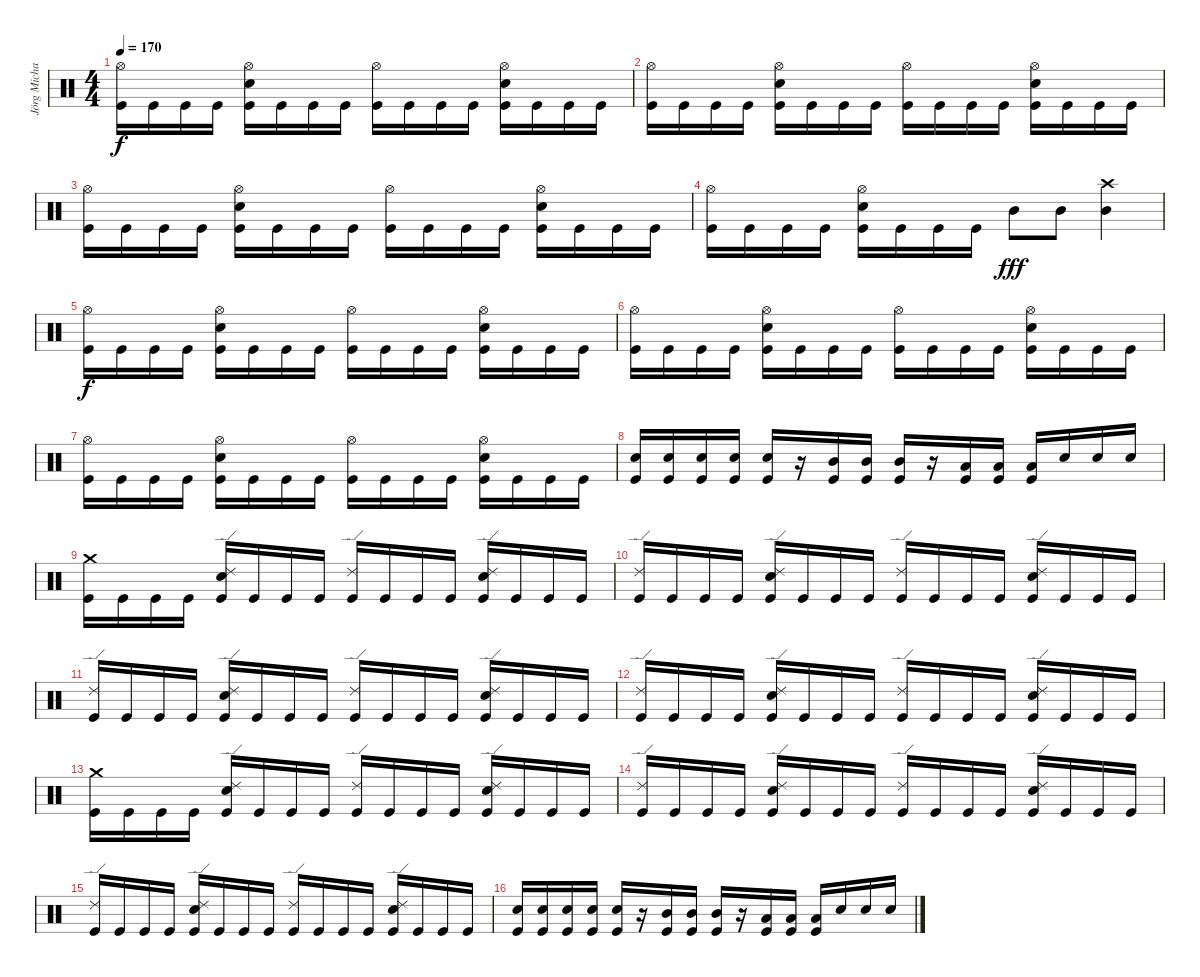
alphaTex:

\track ("Jörg Michael" "Jörg Micha") {instrument percussion}
\staff {score}
\articulation defaults
\ts (4 4)
\tempo 170
\clef neutral
\ks c
("Hi-Hat (open)" "Kick (hit)").16{dy f} "Kick (hit)".16 "Kick (hit)".16 "Kick (hit)".16 ("Hi-Hat (open)" "Electric Snare (hit)" "Kick (hit)").16 "Kick (hit)".16 "Kick (hit)".16 "Kick (hit)".16 ("Hi-Hat (open)" "Kick (hit)").16 "Kick (hit)".16 "Kick (hit)".16 "Kick (hit)".16 ("Hi-Hat (open)" "Electric Snare (hit)" "Kick (hit)").16 "Kick (hit)".16 "Kick (hit)".16 "Kick (hit)".16 |
("Hi-Hat (open)" "Kick (hit)").16 "Kick (hit)".16 "Kick (hit)".16 "Kick (hit)".16 ("Hi-Hat (open)" "Electric Snare (hit)" "Kick (hit)").16 "Kick (hit)".16 "Kick (hit)".16 "Kick (hit)".16 ("Hi-Hat (open)" "Kick (hit)").16 "Kick (hit)".16 "Kick (hit)".16 "Kick (hit)".16 ("Hi-Hat (open)" "Electric Snare (hit)" "Kick (hit)").16 "Kick (hit)".16 "Kick (hit)".16 "Kick (hit)".16 |
("Hi-Hat (open)" "Kick (hit)").16 "Kick (hit)".16 "Kick (hit)".16 "Kick (hit)".16 ("Hi-Hat (open)" "Electric Snare (hit)" "Kick (hit)").16 "Kick (hit)".16 "Kick (hit)".16 "Kick (hit)".16 ("Hi-Hat (open)" "Kick (hit)").16 "Kick (hit)".16 "Kick (hit)".16 "Kick (hit)".16 ("Hi-Hat (open)" "Electric Snare (hit)" "Kick (hit)").16 "Kick (hit)".16 "Kick (hit)".16 "Kick (hit)".16 |
("Hi-Hat (open)" "Kick (hit)").16 "Kick (hit)".16 "Kick (hit)".16 "Kick (hit)".16 ("Hi-Hat (open)" "Electric Snare (hit)" "Kick (hit)").16 "Kick (hit)".16 "Kick (hit)".16 "Kick (hit)".16 "Mid Tom (hit)".8{dy fff} "Mid Tom (hit)".8 ("Crash high (hit)" "Mid Tom (hit)").4 |
("Hi-Hat (open)" "Kick (hit)").16{dy f} "Kick (hit)".16 "Kick (hit)".16 "Kick (hit)".16 ("Hi-Hat (open)" "Electric Snare (hit)" "Kick (hit)").16 "Kick (hit)".16 "Kick (hit)".16 "Kick (hit)".16 ("Hi-Hat (open)" "Kick (hit)").16 "Kick (hit)".16 "Kick (hit)".16 "Kick (hit)".16 ("Hi-Hat (open)" "Electric Snare (hit)" "Kick (hit)").16 "Kick (hit)".16 "Kick (hit)".16 "Kick (hit)".16 |
("Hi-Hat (open)" "Kick (hit)").16 "Kick (hit)".16 "Kick (hit)".16 "Kick (hit)".16 ("Hi-Hat (open)" "Electric Snare (hit)" "Kick (hit)").16 "Kick (hit)".16 "Kick (hit)".16 "Kick (hit)".16 ("Hi-Hat (open)" "Kick (hit)").16 "Kick (hit)".16 "Kick (hit)".16 "Kick (hit)".16 ("Hi-Hat (open)" "Electric Snare (hit)" "Kick (hit)").16 "Kick (hit)".16 "Kick (hit)".16 "Kick (hit)".16 |
("Hi-Hat (open)" "Kick (hit)").16 "Kick (hit)".16 "Kick (hit)".16 "Kick (hit)".16 ("Hi-Hat (open)" "Electric Snare (hit)" "Kick (hit)").16 "Kick (hit)".16 "Kick (hit)".16 "Kick (hit)".16 ("Hi-Hat (open)" "Kick (hit)").16 "Kick (hit)".16 "Kick (hit)".16 "Kick (hit)".16 ("Hi-Hat (open)" "Electric Snare (hit)" "Kick (hit)").16 "Kick (hit)".16 "Kick (hit)".16 "Kick (hit)".16 |
("Electric Snare (hit)" "Kick (hit)").16 ("Electric Snare (hit)" "Kick (hit)").16 ("Electric Snare (hit)" "Kick (hit)").16 ("Electric Snare (hit)" "Kick (hit)").16 ("Electric Snare (hit)" "Kick (hit)").16 r.16 ("Mid Tom (hit)" "Kick (hit)").16 ("Mid Tom (hit)" "Kick (hit)").16 ("Mid Tom (hit)" "Kick (hit)").16 r.16 ("Low Tom (hit)" "Kick (hit)").16 ("Low Tom (hit)" "Kick (hit)").16 ("Low Tom (hit)" "Kick (hit)").16 "Electric Snare (hit)".16 "Electric Snare (hit)".16 "Electric Snare (hit)".16 |
("Crash medium (hit)" "Kick (hit)").16 "Kick (hit)".16 "Kick (hit)".16 "Kick (hit)".16 ("Ride (edge) 2" "Electric Snare (hit)" "Kick (hit)").16 "Kick (hit)".16 "Kick (hit)".16 "Kick (hit)".16 ("Ride (edge) 2" "Kick (hit)").16 "Kick (hit)".16 "Kick (hit)".16 "Kick (hit)".16 ("Ride (edge) 2" "Electric Snare (hit)" "Kick (hit)").16 "Kick (hit)".16 "Kick (hit)".16 "Kick (hit)".16 |
("Ride (edge) 2" "Kick (hit)").16 "Kick (hit)".16 "Kick (hit)".16 "Kick (hit)".16 ("Ride (edge) 2" "Electric Snare (hit)" "Kick (hit)").16 "Kick (hit)".16 "Kick (hit)".16 "Kick (hit)".16 ("Ride (edge) 2" "Kick (hit)").16 "Kick (hit)".16 "Kick (hit)".16 "Kick (hit)".16 ("Ride (edge) 2" "Electric Snare (hit)" "Kick (hit)").16 "Kick (hit)".16 "Kick (hit)".16 "Kick (hit)".16 |
("Ride (edge) 2" "Kick (hit)").16 "Kick (hit)".16 "Kick (hit)".16 "Kick (hit)".16 ("Ride (edge) 2" "Electric Snare (hit)" "Kick (hit)").16 "Kick (hit)".16 "Kick (hit)".16 "Kick (hit)".16 ("Ride (edge) 2" "Kick (hit)").16 "Kick (hit)".16 "Kick (hit)".16 "Kick (hit)".16 ("Ride (edge) 2" "Electric Snare (hit)" "Kick (hit)").16 "Kick (hit)".16 "Kick (hit)".16 "Kick (hit)".16 |
("Ride (edge) 2" "Kick (hit)").16 "Kick (hit)".16 "Kick (hit)".16 "Kick (hit)".16 ("Ride (edge) 2" "Electric Snare (hit)" "Kick (hit)").16 "Kick (hit)".16 "Kick (hit)".16 "Kick (hit)".16 ("Ride (edge) 2" "Kick (hit)").16 "Kick (hit)".16 "Kick (hit)".16 "Kick (hit)".16 ("Ride (edge) 2" "Electric Snare (hit)" "Kick (hit)").16 "Kick (hit)".16 "Kick (hit)".16 "Kick (hit)".16 |
("Crash medium (hit)" "Kick (hit)").16 "Kick (hit)".16 "Kick (hit)".16 "Kick (hit)".16 ("Ride (edge) 2" "Electric Snare (hit)" "Kick (hit)").16 "Kick (hit)".16 "Kick (hit)".16 "Kick (hit)".16 ("Ride (edge) 2" "Kick (hit)").16 "Kick (hit)".16 "Kick (hit)".16 "Kick (hit)".16 ("Ride (edge) 2" "Electric Snare (hit)" "Kick (hit)").16 "Kick (hit)".16 "Kick (hit)".16 "Kick (hit)".16 |
("Ride (edge) 2" "Kick (hit)").16 "Kick (hit)".16 "Kick (hit)".16 "Kick (hit)".16 ("Ride (edge) 2" "Electric Snare (hit)" "Kick (hit)").16 "Kick (hit)".16 "Kick (hit)".16 "Kick (hit)".16 ("Ride (edge) 2" "Kick (hit)").16 "Kick (hit)".16 "Kick (hit)".16 "Kick (hit)".16 ("Ride (edge) 2" "Electric Snare (hit)" "Kick (hit)").16 "Kick (hit)".16 "Kick (hit)".16 "Kick (hit)".16 |
("Ride (edge) 2" "Kick (hit)").16 "Kick (hit)".16 "Kick (hit)".16 "Kick (hit)".16 ("Ride (edge) 2" "Electric Snare (hit)" "Kick (hit)").16 "Kick (hit)".16 "Kick (hit)".16 "Kick (hit)".16 ("Ride (edge) 2" "Kick (hit)").16 "Kick (hit)".16 "Kick (hit)".16 "Kick (hit)".16 ("Ride (edge) 2" "Electric Snare (hit)" "Kick (hit)").16 "Kick (hit)".16 "Kick (hit)".16 "Kick (hit)".16 |
("Electric Snare (hit)" "Kick (hit)").16 ("Electric Snare (hit)" "Kick (hit)").16 ("Electric Snare (hit)" "Kick (hit)").16 ("Electric Snare (hit)" "Kick (hit)").16 ("Electric Snare (hit)" "Kick (hit)").16 r.16 ("Mid Tom (hit)" "Kick (hit)").16 ("Mid Tom (hit)" "Kick (hit)").16 ("Mid Tom (hit)" "Kick (hit)").16 r.16 ("Low Tom (hit)" "Kick (hit)").16 ("Low Tom (hit)" "Kick (hit)").16 ("Low Tom (hit)" "Kick (hit)").16 "Electric Snare (hit)".16 "Electric Snare (hit)".16 "Electric Snare (hit)".16
